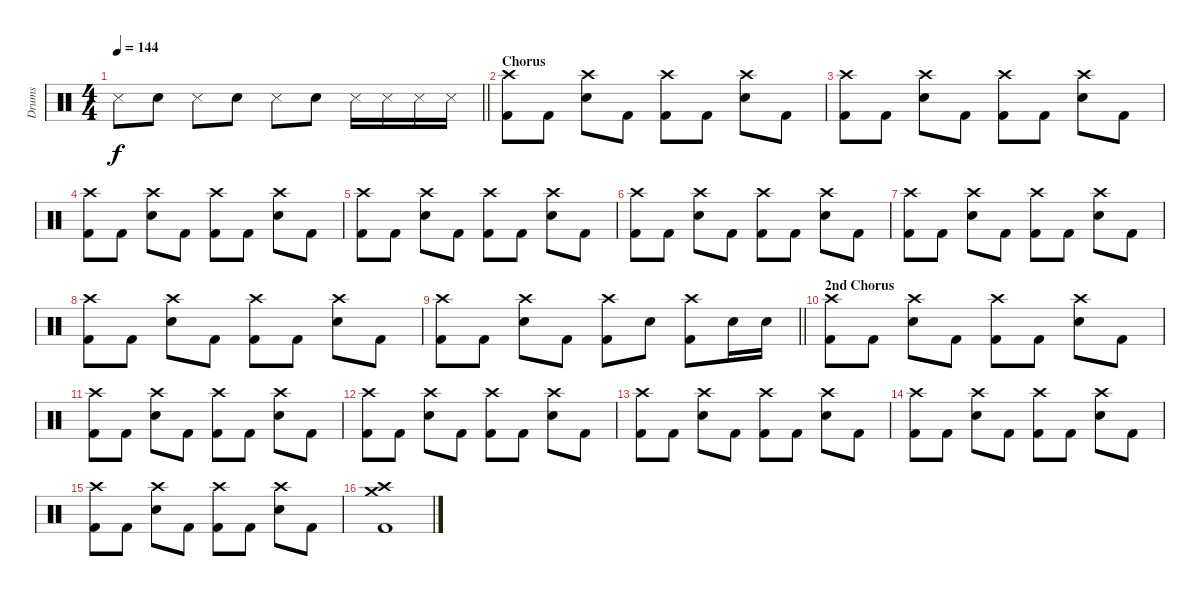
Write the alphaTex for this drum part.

\track ("Drums" "Drums") {instrument percussion}
\staff {score}
\articulation defaults
\ts (4 4)
\tempo 144
\clef neutral
\barLineRight lightlight
\ks c "Metronome (hit)".8{dy f} "Metronome (bell)".8 "Metronome (hit)".8 "Metronome (bell)".8 "Metronome (hit)".8 "Metronome (bell)".8 "Metronome (hit)".16 "Metronome (hit)".16 "Metronome (hit)".16 "Metronome (hit)".16
|
\section ("" "Chorus")
("Crash high (hit)" "Kick (hit) 2").8 "Kick (hit) 2".8 ("Crash high (hit)" "Electric Snare (hit)").8 "Kick (hit) 2".8 ("Crash high (hit)" "Kick (hit) 2").8 "Kick (hit) 2".8 ("Crash high (hit)" "Electric Snare (hit)").8 "Kick (hit) 2".8 |
("Crash high (hit)" "Kick (hit) 2").8 "Kick (hit) 2".8 ("Crash high (hit)" "Electric Snare (hit)").8 "Kick (hit) 2".8 ("Crash high (hit)" "Kick (hit) 2").8 "Kick (hit) 2".8 ("Crash high (hit)" "Electric Snare (hit)").8 "Kick (hit) 2".8 |
("Crash high (hit)" "Kick (hit) 2").8 "Kick (hit) 2".8 ("Crash high (hit)" "Electric Snare (hit)").8 "Kick (hit) 2".8 ("Crash high (hit)" "Kick (hit) 2").8 "Kick (hit) 2".8 ("Crash high (hit)" "Electric Snare (hit)").8 "Kick (hit) 2".8 |
("Crash high (hit)" "Kick (hit) 2").8 "Kick (hit) 2".8 ("Crash high (hit)" "Electric Snare (hit)").8 "Kick (hit) 2".8 ("Crash high (hit)" "Kick (hit) 2").8 "Kick (hit) 2".8 ("Crash high (hit)" "Electric Snare (hit)").8 "Kick (hit) 2".8 |
("Crash high (hit)" "Kick (hit) 2").8 "Kick (hit) 2".8 ("Crash high (hit)" "Electric Snare (hit)").8 "Kick (hit) 2".8 ("Crash high (hit)" "Kick (hit) 2").8 "Kick (hit) 2".8 ("Crash high (hit)" "Electric Snare (hit)").8 "Kick (hit) 2".8 |
("Crash high (hit)" "Kick (hit) 2").8 "Kick (hit) 2".8 ("Crash high (hit)" "Electric Snare (hit)").8 "Kick (hit) 2".8 ("Crash high (hit)" "Kick (hit) 2").8 "Kick (hit) 2".8 ("Crash high (hit)" "Electric Snare (hit)").8 "Kick (hit) 2".8 |
("Crash high (hit)" "Kick (hit) 2").8 "Kick (hit) 2".8 ("Crash high (hit)" "Electric Snare (hit)").8 "Kick (hit) 2".8 ("Crash high (hit)" "Kick (hit) 2").8 "Kick (hit) 2".8 ("Crash high (hit)" "Electric Snare (hit)").8 "Kick (hit) 2".8 |
\barLineRight lightlight
("Crash high (hit)" "Kick (hit) 2").8 "Kick (hit) 2".8 ("Crash high (hit)" "Electric Snare (hit)").8 "Kick (hit) 2".8 ("Crash high (hit)" "Kick (hit) 2").8 "Electric Snare (hit)".8 ("Crash high (hit)" "Kick (hit) 2").8 "Electric Snare (hit)".16 "Electric Snare (hit)".16 |
\section ("" "2nd Chorus")
("Crash high (hit)" "Kick (hit) 2").8 "Kick (hit) 2".8 ("Crash high (hit)" "Electric Snare (hit)").8 "Kick (hit) 2".8 ("Crash high (hit)" "Kick (hit) 2").8 "Kick (hit) 2".8 ("Crash high (hit)" "Electric Snare (hit)").8 "Kick (hit) 2".8 |
("Crash high (hit)" "Kick (hit) 2").8 "Kick (hit) 2".8 ("Crash high (hit)" "Electric Snare (hit)").8 "Kick (hit) 2".8 ("Crash high (hit)" "Kick (hit) 2").8 "Kick (hit) 2".8 ("Crash high (hit)" "Electric Snare (hit)").8 "Kick (hit) 2".8 |
("Crash high (hit)" "Kick (hit) 2").8 "Kick (hit) 2".8 ("Crash high (hit)" "Electric Snare (hit)").8 "Kick (hit) 2".8 ("Crash high (hit)" "Kick (hit) 2").8 "Kick (hit) 2".8 ("Crash high (hit)" "Electric Snare (hit)").8 "Kick (hit) 2".8 |
("Crash high (hit)" "Kick (hit) 2").8 "Kick (hit) 2".8 ("Crash high (hit)" "Electric Snare (hit)").8 "Kick (hit) 2".8 ("Crash high (hit)" "Kick (hit) 2").8 "Kick (hit) 2".8 ("Crash high (hit)" "Electric Snare (hit)").8 "Kick (hit) 2".8 |
("Crash high (hit)" "Kick (hit) 2").8 "Kick (hit) 2".8 ("Crash high (hit)" "Electric Snare (hit)").8 "Kick (hit) 2".8 ("Crash high (hit)" "Kick (hit) 2").8 "Kick (hit) 2".8 ("Crash high (hit)" "Electric Snare (hit)").8 "Kick (hit) 2".8 |
("Crash high (hit)" "Kick (hit) 2").8 "Kick (hit) 2".8 ("Crash high (hit)" "Electric Snare (hit)").8 "Kick (hit) 2".8 ("Crash high (hit)" "Kick (hit) 2").8 "Kick (hit) 2".8 ("Crash high (hit)" "Electric Snare (hit)").8 "Kick (hit) 2".8 |
("Crash high (hit)" "Crash medium (hit)" "Kick (hit) 2").1
